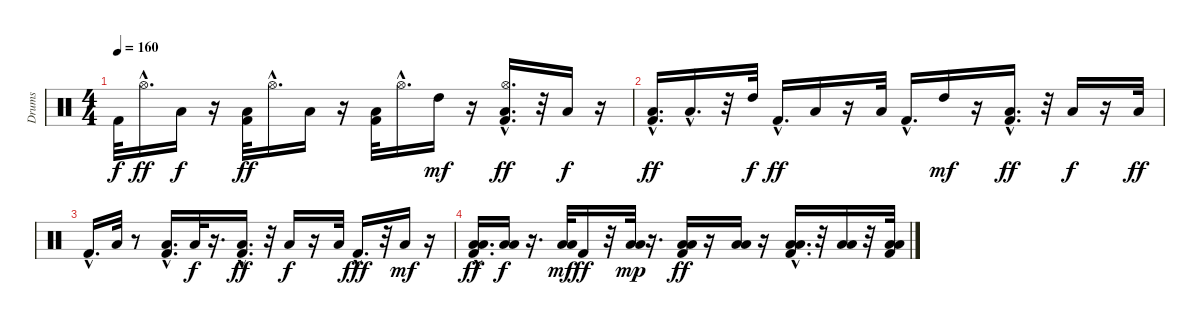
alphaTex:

\track ("Drums" "Drums") {instrument percussion}
\staff {score}
\articulation defaults
\ts (4 4)
\tempo 160
\clef neutral
\ks c "Kick (hit) 2".32{dy f} "Hi-Hat (open)"{hac}.16{d dy ff} "Low Tom (hit)".16{dy f}
r.16 ("Low Tom (hit)" "Kick (hit) 2").32{dy ff} "Hi-Hat (open)"{hac}.16{d} "Low Tom (hit)".16 r.16 ("Kick (hit) 2" "Low Tom (hit)").32 "Hi-Hat (open)"{hac}.16{d} "High Tom (hit)".16{dy mf} r.16 ("Kick (hit) 2"{hac} "Low Tom (hit)" "Hi-Hat (open)"{hac}).16{d dy ff} r.32 "Low Tom (hit)".16{dy f} r.16 |
("Low Tom (hit)" "Kick (hit) 2"{hac}).16{d dy ff} "Low Tom (hit)"{hac}.16{d} r.32 "High Tom (hit)".32{dy f} "Kick (hit) 2"{hac}.16{d dy ff} "Low Tom (hit)".16 r.16 "Low Tom (hit)".32 "Kick (hit) 2"{hac}.16{d} "High Tom (hit)".16{dy mf} r.16 ("Low Tom (hit)" "Kick (hit) 2"{hac}).16{d dy ff} r.32 "Low Tom (hit)".16{dy f} r.16 "Low Tom (hit)".32{dy ff} |
"Kick (hit) 2"{hac}.16{d} "Low Tom (hit)".32 r.8 ("Low Tom (hit)" "Kick (hit) 2"{hac}).16{d} "Low Tom (hit)".32{dy f} r.16{d} ("Kick (hit) 2"{hac} "Low Tom (hit)").16{d dy ff} r.32 "Low Tom (hit)".16{dy f} r.16 "Low Tom (hit)".32 "Kick (hit) 2"{hac}.16{d dy fff} r.32 "Low Tom (hit)".16{dy mf} r.16 |
("Low Floor Tom (hit)" "Low Tom (hit)" "Kick (hit) 2"{hac}).16{d dy ff} ("Low Floor Tom (hit)" "Low Tom (hit)").16{dy f} r.16{d} ("Low Tom (hit)" "Low Floor Tom (hit)").32{dy mf} "Kick (hit) 2".16{dy ff} r.32 ("Low Tom (hit)" "Low Floor Tom (hit)").32{dy mp} r.16{d} ("Low Tom (hit)" "Low Floor Tom (hit)" "Kick (hit) 2").16{dy ff} r.16 ("Low Tom (hit)" "Low Floor Tom (hit)").16 r.16 ("Low Floor Tom (hit)" "Low Tom (hit)" "Kick (hit) 2"{hac}).16{d} r.32 ("Low Tom (hit)" "Low Floor Tom (hit)").16 r.32 ("Kick (hit) 2" "Low Floor Tom (hit)" "Low Tom (hit)").32
